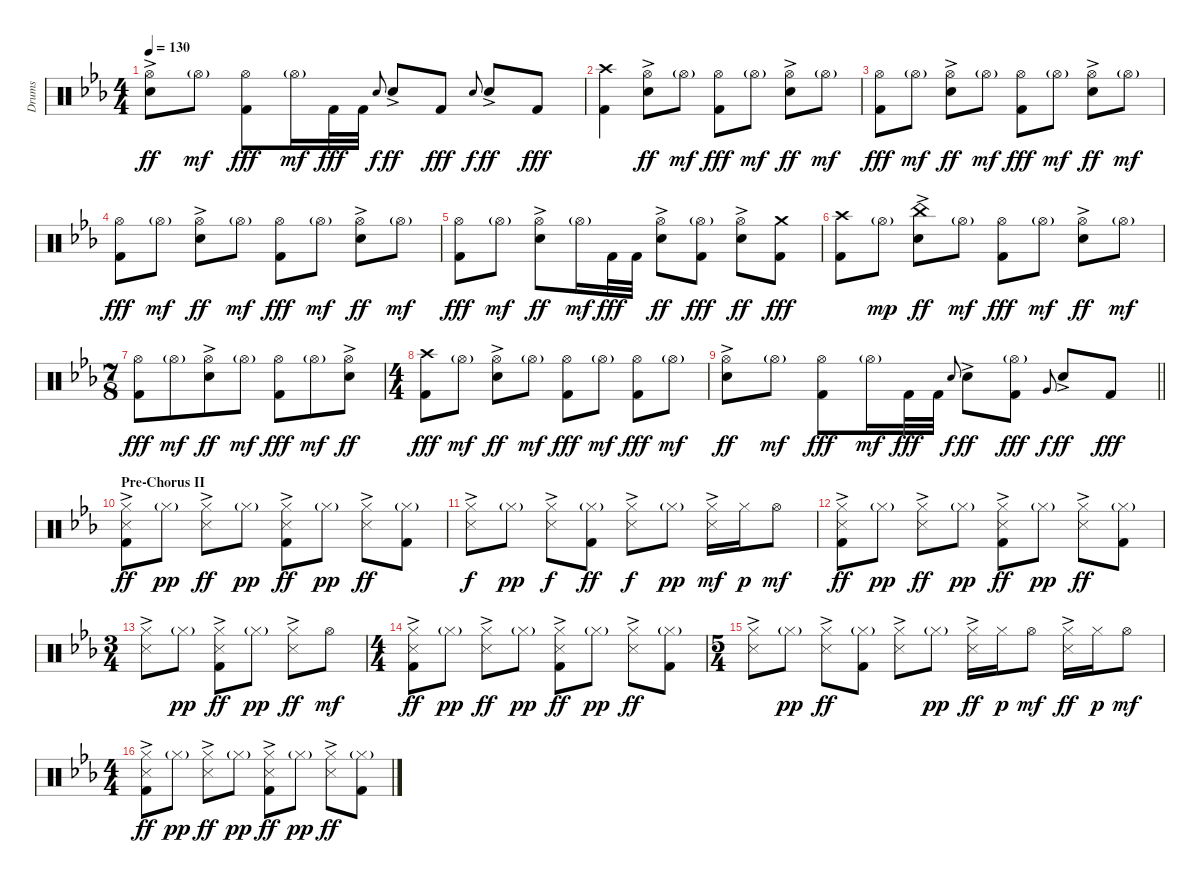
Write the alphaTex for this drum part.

\track ("Drums" "Drums") {instrument percussion}
\staff {score}
\articulation defaults
\ts (4 4)
\tempo 130
\clef neutral
\ks cminor
("Hi-Hat (open)" "Electric Snare (hit)"{ac}).8{dy ff} "Hi-Hat (open)"{g}.8{dy mf} ("Hi-Hat (open)" "Kick (hit) 2").8{dy fff} "Hi-Hat (open)"{g}.16{dy mf} "Kick (hit) 2".32{dy fff} "Kick (hit) 2".32 "Electric Snare (hit)".8{gr onbeat dy f} "Electric Snare (hit)"{ac}.8{dy ff} "Kick (hit) 2".8{dy fff} "Electric Snare (hit)".8{gr onbeat dy f} "Electric Snare (hit)"{ac}.8{dy ff} "Kick (hit) 2".8{dy fff} |
("Crash high (hit)" "Kick (hit) 2").4 ("Hi-Hat (open)" "Electric Snare (hit)"{ac}).8{dy ff} "Hi-Hat (open)"{g}.8{dy mf} ("Hi-Hat (open)" "Kick (hit) 2").8{dy fff} "Hi-Hat (open)"{g}.8{dy mf} ("Hi-Hat (open)" "Electric Snare (hit)"{ac}).8{dy ff} "Hi-Hat (open)"{g}.8{dy mf} |
("Hi-Hat (open)" "Kick (hit) 2").8{dy fff} "Hi-Hat (open)"{g}.8{dy mf} ("Hi-Hat (open)" "Electric Snare (hit)"{ac}).8{dy ff} "Hi-Hat (open)"{g}.8{dy mf} ("Hi-Hat (open)" "Kick (hit) 2").8{dy fff} "Hi-Hat (open)"{g}.8{dy mf} ("Hi-Hat (open)" "Electric Snare (hit)"{ac}).8{dy ff} "Hi-Hat (open)"{g}.8{dy mf} |
("Hi-Hat (open)" "Kick (hit) 2").8{dy fff} "Hi-Hat (open)"{g}.8{dy mf} ("Hi-Hat (open)" "Electric Snare (hit)"{ac}).8{dy ff} "Hi-Hat (open)"{g}.8{dy mf} ("Hi-Hat (open)" "Kick (hit) 2").8{dy fff} "Hi-Hat (open)"{g}.8{dy mf} ("Hi-Hat (open)" "Electric Snare (hit)"{ac}).8{dy ff} "Hi-Hat (open)"{g}.8{dy mf} |
("Hi-Hat (open)" "Kick (hit) 2").8{dy fff} "Hi-Hat (open)"{g}.8{dy mf} ("Hi-Hat (open)" "Electric Snare (hit)"{ac}).8{dy ff} "Hi-Hat (open)"{g}.16{dy mf} "Kick (hit) 2".32{dy fff} "Kick (hit) 2".32 ("Hi-Hat (open)" "Electric Snare (hit)"{ac}).8{dy ff} ("Hi-Hat (open)"{g} "Kick (hit) 2").8{dy fff} ("Hi-Hat (open)" "Electric Snare (hit)"{ac}).8{dy ff} ("Crash medium (hit)" "Kick (hit) 2").8{dy fff} |
("Crash high (hit)" "Kick (hit) 2").8 "Hi-Hat (open)"{g}.8{dy mp} ("China (hit)" "Electric Snare (hit)"{ac}).8{dy ff} "Hi-Hat (open)"{g}.8{dy mf} ("Hi-Hat (open)" "Kick (hit) 2").8{dy fff} "Hi-Hat (open)"{g}.8{dy mf} ("Hi-Hat (open)" "Electric Snare (hit)"{ac}).8{dy ff} "Hi-Hat (open)"{g}.8{dy mf} |
\ts (7 8)
("Hi-Hat (open)" "Kick (hit) 2").8{dy fff} "Hi-Hat (open)"{g}.8{dy mf} ("Hi-Hat (open)" "Electric Snare (hit)"{ac}).8{dy ff} "Hi-Hat (open)"{g}.8{dy mf} ("Hi-Hat (open)" "Kick (hit) 2").8{dy fff} "Hi-Hat (open)"{g}.8{dy mf} ("Hi-Hat (open)" "Electric Snare (hit)"{ac}).8{dy ff} |
\ts (4 4)
("Crash high (hit)" "Kick (hit) 2").8{dy fff} "Hi-Hat (open)"{g}.8{dy mf} ("Hi-Hat (open)" "Electric Snare (hit)"{ac}).8{dy ff} "Hi-Hat (open)"{g}.8{dy mf} ("Hi-Hat (open)" "Kick (hit) 2").8{dy fff} "Hi-Hat (open)"{g}.8{dy mf} ("Hi-Hat (open)" "Kick (hit) 2").8{dy fff} "Hi-Hat (open)"{g}.8{dy mf} |
\barLineRight lightlight
("Hi-Hat (open)" "Electric Snare (hit)"{ac}).8{dy ff} "Hi-Hat (open)"{g}.8{dy mf} ("Hi-Hat (open)" "Kick (hit) 2").8{dy fff} "Hi-Hat (open)"{g}.16{dy mf} "Kick (hit) 2".32{dy fff} "Kick (hit) 2".32 "Electric Snare (hit)".8{gr onbeat dy f} "Electric Snare (hit)"{ac}.8{dy ff} ("Hi-Hat (open)"{g} "Kick (hit) 2").8{dy fff} "Very Low Tom (hit)".8{gr onbeat dy f} "Electric Snare (hit)"{ac}.8{dy ff} "Kick (hit) 2".8{dy fff} |
\section ("" "Pre-Chorus II")
("Hi-Hat (closed)" "Snare (side stick) 3"{ac} "Kick (hit) 2").8{dy ff} "Hi-Hat (closed)"{g}.8{dy pp} ("Hi-Hat (closed)" "Snare (side stick) 3"{ac}).8{dy ff} "Hi-Hat (closed)"{g}.8{dy pp} ("Hi-Hat (closed)" "Snare (side stick) 3"{ac} "Kick (hit) 2").8{dy ff} "Hi-Hat (closed)"{g}.8{dy pp} ("Hi-Hat (closed)" "Snare (side stick) 3"{ac}).8{dy ff} ("Hi-Hat (closed)"{g} "Kick (hit) 2").8 |
("Hi-Hat (closed)" "Snare (side stick) 3"{ac}).8{dy f} "Hi-Hat (closed)"{g}.8{dy pp} ("Hi-Hat (closed)" "Snare (side stick) 3"{ac}).8{dy f} ("Hi-Hat (closed)"{g} "Kick (hit) 2").8{dy ff} ("Hi-Hat (closed)" "Snare (side stick) 3"{ac}).8{dy f} "Hi-Hat (closed)"{g}.8{dy pp} ("Hi-Hat (closed)" "Snare (side stick) 3"{ac}).16{dy mf} "Hi-Hat (closed)".16{dy p} "Hi-Hat (open)".8{dy mf} |
("Hi-Hat (closed)" "Snare (side stick) 3"{ac} "Kick (hit) 2").8{dy ff} "Hi-Hat (closed)"{g}.8{dy pp} ("Hi-Hat (closed)" "Snare (side stick) 3"{ac}).8{dy ff} "Hi-Hat (closed)"{g}.8{dy pp} ("Hi-Hat (closed)" "Snare (side stick) 3"{ac} "Kick (hit) 2").8{dy ff} "Hi-Hat (closed)"{g}.8{dy pp} ("Hi-Hat (closed)" "Snare (side stick) 3"{ac}).8{dy ff} ("Hi-Hat (closed)"{g} "Kick (hit) 2").8 |
\ts (3 4)
("Hi-Hat (closed)" "Snare (side stick) 3"{ac}).8 "Hi-Hat (closed)"{g}.8{dy pp} ("Hi-Hat (closed)" "Snare (side stick) 3"{ac} "Kick (hit) 2").8{dy ff} "Hi-Hat (closed)"{g}.8{dy pp} ("Hi-Hat (closed)" "Snare (side stick) 3"{ac}).8{dy ff} "Hi-Hat (open)".8{dy mf} |
\ts (4 4)
("Hi-Hat (closed)" "Snare (side stick) 3"{ac} "Kick (hit) 2").8{dy ff} "Hi-Hat (closed)"{g}.8{dy pp} ("Hi-Hat (closed)" "Snare (side stick) 3"{ac}).8{dy ff} "Hi-Hat (closed)"{g}.8{dy pp} ("Hi-Hat (closed)" "Snare (side stick) 3"{ac} "Kick (hit) 2").8{dy ff} "Hi-Hat (closed)"{g}.8{dy pp} ("Hi-Hat (closed)" "Snare (side stick) 3"{ac}).8{dy ff} ("Hi-Hat (closed)"{g} "Kick (hit) 2").8 |
\ts (5 4)
("Hi-Hat (closed)" "Snare (side stick) 3"{ac}).8 "Hi-Hat (closed)"{g}.8{dy pp} ("Hi-Hat (closed)" "Snare (side stick) 3"{ac}).8{dy ff} ("Hi-Hat (closed)"{g} "Kick (hit) 2").8 ("Hi-Hat (closed)" "Snare (side stick) 3"{ac}).8 "Hi-Hat (closed)"{g}.8{dy pp} ("Hi-Hat (closed)" "Snare (side stick) 3"{ac}).16{dy ff} "Hi-Hat (closed)".16{dy p} "Hi-Hat (open)".8{dy mf} ("Hi-Hat (closed)" "Snare (side stick) 3"{ac}).16{dy ff} "Hi-Hat (closed)".16{dy p} "Hi-Hat (open)".8{dy mf} |
\ts (4 4)
("Hi-Hat (closed)" "Snare (side stick) 3"{ac} "Kick (hit) 2").8{dy ff} "Hi-Hat (closed)"{g}.8{dy pp} ("Hi-Hat (closed)" "Snare (side stick) 3"{ac}).8{dy ff} "Hi-Hat (closed)"{g}.8{dy pp} ("Hi-Hat (closed)" "Snare (side stick) 3"{ac} "Kick (hit) 2").8{dy ff} "Hi-Hat (closed)"{g}.8{dy pp} ("Hi-Hat (closed)" "Snare (side stick) 3"{ac}).8{dy ff} ("Hi-Hat (closed)"{g} "Kick (hit) 2").8
